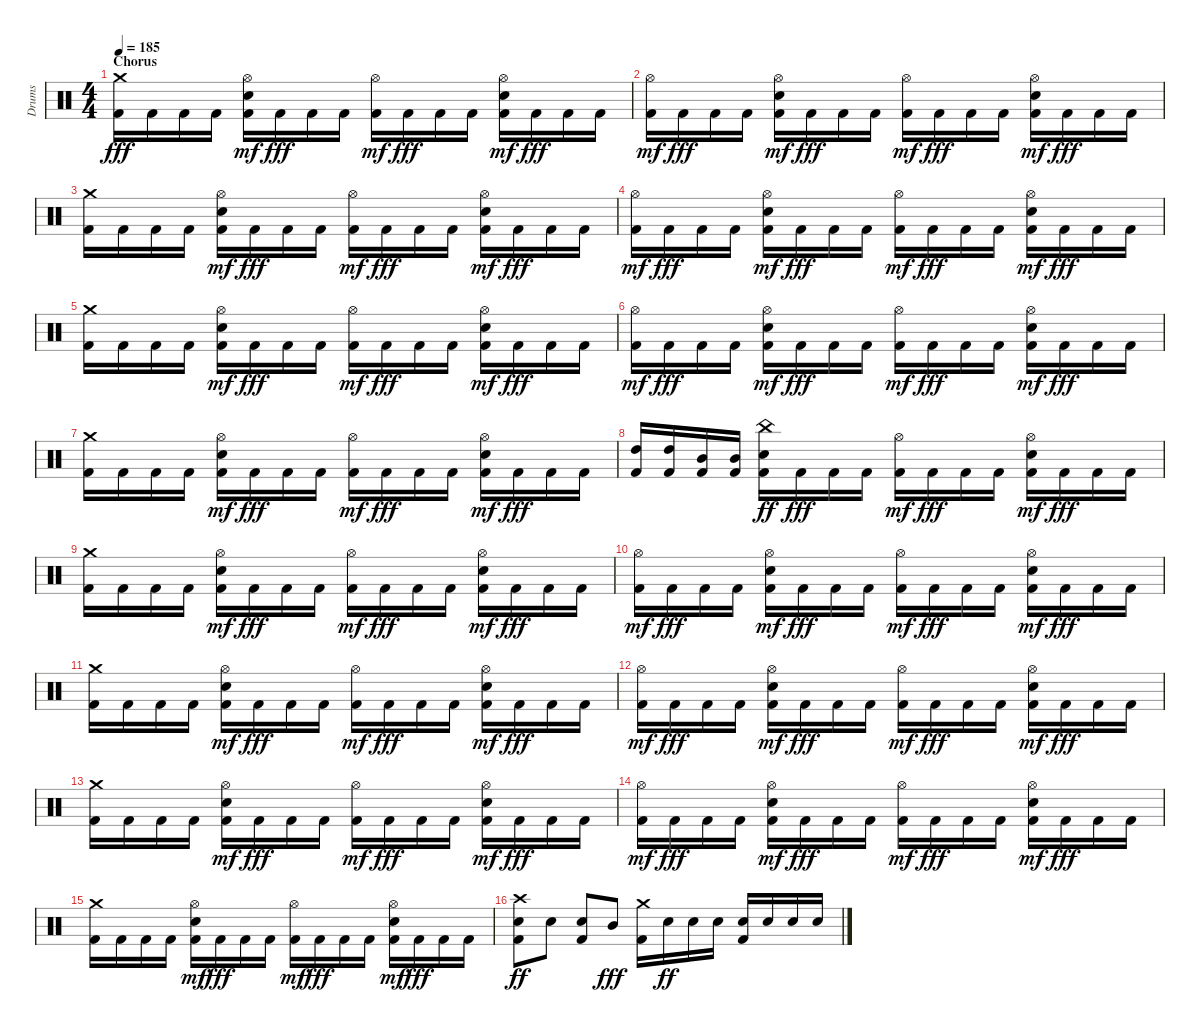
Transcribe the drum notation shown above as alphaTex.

\track ("Drums" "Drums") {instrument percussion}
\staff {score}
\articulation defaults
\ts (4 4)
\section ("" "Chorus")
\tempo 185
\clef neutral
\ks c
("Kick (hit) 2" "Crash medium (hit)").16{dy fff} "Kick (hit) 2".16 "Kick (hit) 2".16 "Kick (hit) 2".16 ("Kick (hit) 2" "Snare (hit) 2" "Hi-Hat (open)").16{dy mf} "Kick (hit) 2".16{dy fff} "Kick (hit) 2".16 "Kick (hit) 2".16 ("Kick (hit) 2" "Hi-Hat (open)").16{dy mf} "Kick (hit) 2".16{dy fff} "Kick (hit) 2".16 "Kick (hit) 2".16 ("Kick (hit) 2" "Snare (hit) 2" "Hi-Hat (open)").16{dy mf} "Kick (hit) 2".16{dy fff} "Kick (hit) 2".16 "Kick (hit) 2".16 |
("Kick (hit) 2" "Hi-Hat (open)").16{dy mf} "Kick (hit) 2".16{dy fff} "Kick (hit) 2".16 "Kick (hit) 2".16 ("Kick (hit) 2" "Snare (hit) 2" "Hi-Hat (open)").16{dy mf} "Kick (hit) 2".16{dy fff} "Kick (hit) 2".16 "Kick (hit) 2".16 ("Kick (hit) 2" "Hi-Hat (open)").16{dy mf} "Kick (hit) 2".16{dy fff} "Kick (hit) 2".16 "Kick (hit) 2".16 ("Kick (hit) 2" "Snare (hit) 2" "Hi-Hat (open)").16{dy mf} "Kick (hit) 2".16{dy fff} "Kick (hit) 2".16 "Kick (hit) 2".16 |
("Kick (hit) 2" "Crash medium (hit)").16 "Kick (hit) 2".16 "Kick (hit) 2".16 "Kick (hit) 2".16 ("Kick (hit) 2" "Snare (hit) 2" "Hi-Hat (open)").16{dy mf} "Kick (hit) 2".16{dy fff} "Kick (hit) 2".16 "Kick (hit) 2".16 ("Kick (hit) 2" "Hi-Hat (open)").16{dy mf} "Kick (hit) 2".16{dy fff} "Kick (hit) 2".16 "Kick (hit) 2".16 ("Kick (hit) 2" "Snare (hit) 2" "Hi-Hat (open)").16{dy mf} "Kick (hit) 2".16{dy fff} "Kick (hit) 2".16 "Kick (hit) 2".16 |
("Kick (hit) 2" "Hi-Hat (open)").16{dy mf} "Kick (hit) 2".16{dy fff} "Kick (hit) 2".16 "Kick (hit) 2".16 ("Kick (hit) 2" "Snare (hit) 2" "Hi-Hat (open)").16{dy mf} "Kick (hit) 2".16{dy fff} "Kick (hit) 2".16 "Kick (hit) 2".16 ("Kick (hit) 2" "Hi-Hat (open)").16{dy mf} "Kick (hit) 2".16{dy fff} "Kick (hit) 2".16 "Kick (hit) 2".16 ("Kick (hit) 2" "Snare (hit) 2" "Hi-Hat (open)").16{dy mf} "Kick (hit) 2".16{dy fff} "Kick (hit) 2".16 "Kick (hit) 2".16 |
("Kick (hit) 2" "Crash medium (hit)").16 "Kick (hit) 2".16 "Kick (hit) 2".16 "Kick (hit) 2".16 ("Kick (hit) 2" "Snare (hit) 2" "Hi-Hat (open)").16{dy mf} "Kick (hit) 2".16{dy fff} "Kick (hit) 2".16 "Kick (hit) 2".16 ("Kick (hit) 2" "Hi-Hat (open)").16{dy mf} "Kick (hit) 2".16{dy fff} "Kick (hit) 2".16 "Kick (hit) 2".16 ("Kick (hit) 2" "Snare (hit) 2" "Hi-Hat (open)").16{dy mf} "Kick (hit) 2".16{dy fff} "Kick (hit) 2".16 "Kick (hit) 2".16 |
("Kick (hit) 2" "Hi-Hat (open)").16{dy mf} "Kick (hit) 2".16{dy fff} "Kick (hit) 2".16 "Kick (hit) 2".16 ("Kick (hit) 2" "Snare (hit) 2" "Hi-Hat (open)").16{dy mf} "Kick (hit) 2".16{dy fff} "Kick (hit) 2".16 "Kick (hit) 2".16 ("Kick (hit) 2" "Hi-Hat (open)").16{dy mf} "Kick (hit) 2".16{dy fff} "Kick (hit) 2".16 "Kick (hit) 2".16 ("Kick (hit) 2" "Snare (hit) 2" "Hi-Hat (open)").16{dy mf} "Kick (hit) 2".16{dy fff} "Kick (hit) 2".16 "Kick (hit) 2".16 |
("Kick (hit) 2" "Crash medium (hit)").16 "Kick (hit) 2".16 "Kick (hit) 2".16 "Kick (hit) 2".16 ("Kick (hit) 2" "Snare (hit) 2" "Hi-Hat (open)").16{dy mf} "Kick (hit) 2".16{dy fff} "Kick (hit) 2".16 "Kick (hit) 2".16 ("Kick (hit) 2" "Hi-Hat (open)").16{dy mf} "Kick (hit) 2".16{dy fff} "Kick (hit) 2".16 "Kick (hit) 2".16 ("Kick (hit) 2" "Snare (hit) 2" "Hi-Hat (open)").16{dy mf} "Kick (hit) 2".16{dy fff} "Kick (hit) 2".16 "Kick (hit) 2".16 |
("Kick (hit) 2" "High Tom (hit)").16 ("Kick (hit) 2" "High Tom (hit)").16 ("Kick (hit) 2" "Mid Tom (hit)").16 ("Kick (hit) 2" "Mid Tom (hit)").16 ("Kick (hit) 2" "Snare (hit) 2" "China (hit)").16{dy ff} "Kick (hit) 2".16{dy fff} "Kick (hit) 2".16 "Kick (hit) 2".16 ("Kick (hit) 2" "Hi-Hat (open)").16{dy mf} "Kick (hit) 2".16{dy fff} "Kick (hit) 2".16 "Kick (hit) 2".16 ("Kick (hit) 2" "Snare (hit) 2" "Hi-Hat (open)").16{dy mf} "Kick (hit) 2".16{dy fff} "Kick (hit) 2".16 "Kick (hit) 2".16 |
("Kick (hit) 2" "Crash medium (hit)").16 "Kick (hit) 2".16 "Kick (hit) 2".16 "Kick (hit) 2".16 ("Kick (hit) 2" "Snare (hit) 2" "Hi-Hat (open)").16{dy mf} "Kick (hit) 2".16{dy fff} "Kick (hit) 2".16 "Kick (hit) 2".16 ("Kick (hit) 2" "Hi-Hat (open)").16{dy mf} "Kick (hit) 2".16{dy fff} "Kick (hit) 2".16 "Kick (hit) 2".16 ("Kick (hit) 2" "Snare (hit) 2" "Hi-Hat (open)").16{dy mf} "Kick (hit) 2".16{dy fff} "Kick (hit) 2".16 "Kick (hit) 2".16 |
("Kick (hit) 2" "Hi-Hat (open)").16{dy mf} "Kick (hit) 2".16{dy fff} "Kick (hit) 2".16 "Kick (hit) 2".16 ("Kick (hit) 2" "Snare (hit) 2" "Hi-Hat (open)").16{dy mf} "Kick (hit) 2".16{dy fff} "Kick (hit) 2".16 "Kick (hit) 2".16 ("Kick (hit) 2" "Hi-Hat (open)").16{dy mf} "Kick (hit) 2".16{dy fff} "Kick (hit) 2".16 "Kick (hit) 2".16 ("Kick (hit) 2" "Snare (hit) 2" "Hi-Hat (open)").16{dy mf} "Kick (hit) 2".16{dy fff} "Kick (hit) 2".16 "Kick (hit) 2".16 |
("Kick (hit) 2" "Crash medium (hit)").16 "Kick (hit) 2".16 "Kick (hit) 2".16 "Kick (hit) 2".16 ("Kick (hit) 2" "Snare (hit) 2" "Hi-Hat (open)").16{dy mf} "Kick (hit) 2".16{dy fff} "Kick (hit) 2".16 "Kick (hit) 2".16 ("Kick (hit) 2" "Hi-Hat (open)").16{dy mf} "Kick (hit) 2".16{dy fff} "Kick (hit) 2".16 "Kick (hit) 2".16 ("Kick (hit) 2" "Snare (hit) 2" "Hi-Hat (open)").16{dy mf} "Kick (hit) 2".16{dy fff} "Kick (hit) 2".16 "Kick (hit) 2".16 |
("Kick (hit) 2" "Hi-Hat (open)").16{dy mf} "Kick (hit) 2".16{dy fff} "Kick (hit) 2".16 "Kick (hit) 2".16 ("Kick (hit) 2" "Snare (hit) 2" "Hi-Hat (open)").16{dy mf} "Kick (hit) 2".16{dy fff} "Kick (hit) 2".16 "Kick (hit) 2".16 ("Kick (hit) 2" "Hi-Hat (open)").16{dy mf} "Kick (hit) 2".16{dy fff} "Kick (hit) 2".16 "Kick (hit) 2".16 ("Kick (hit) 2" "Snare (hit) 2" "Hi-Hat (open)").16{dy mf} "Kick (hit) 2".16{dy fff} "Kick (hit) 2".16 "Kick (hit) 2".16 |
("Kick (hit) 2" "Crash medium (hit)").16 "Kick (hit) 2".16 "Kick (hit) 2".16 "Kick (hit) 2".16 ("Kick (hit) 2" "Snare (hit) 2" "Hi-Hat (open)").16{dy mf} "Kick (hit) 2".16{dy fff} "Kick (hit) 2".16 "Kick (hit) 2".16 ("Kick (hit) 2" "Hi-Hat (open)").16{dy mf} "Kick (hit) 2".16{dy fff} "Kick (hit) 2".16 "Kick (hit) 2".16 ("Kick (hit) 2" "Snare (hit) 2" "Hi-Hat (open)").16{dy mf} "Kick (hit) 2".16{dy fff} "Kick (hit) 2".16 "Kick (hit) 2".16 |
("Kick (hit) 2" "Hi-Hat (open)").16{dy mf} "Kick (hit) 2".16{dy fff} "Kick (hit) 2".16 "Kick (hit) 2".16 ("Kick (hit) 2" "Snare (hit) 2" "Hi-Hat (open)").16{dy mf} "Kick (hit) 2".16{dy fff} "Kick (hit) 2".16 "Kick (hit) 2".16 ("Kick (hit) 2" "Hi-Hat (open)").16{dy mf} "Kick (hit) 2".16{dy fff} "Kick (hit) 2".16 "Kick (hit) 2".16 ("Kick (hit) 2" "Snare (hit) 2" "Hi-Hat (open)").16{dy mf} "Kick (hit) 2".16{dy fff} "Kick (hit) 2".16 "Kick (hit) 2".16 |
("Kick (hit) 2" "Crash medium (hit)").16 "Kick (hit) 2".16 "Kick (hit) 2".16 "Kick (hit) 2".16 ("Kick (hit) 2" "Snare (hit) 2" "Hi-Hat (open)").16{dy mf} "Kick (hit) 2".16{dy fff} "Kick (hit) 2".16 "Kick (hit) 2".16 ("Kick (hit) 2" "Hi-Hat (open)").16{dy mf} "Kick (hit) 2".16{dy fff} "Kick (hit) 2".16 "Kick (hit) 2".16 ("Kick (hit) 2" "Snare (hit) 2" "Hi-Hat (open)").16{dy mf} "Kick (hit) 2".16{dy fff} "Kick (hit) 2".16 "Kick (hit) 2".16 |
("Kick (hit) 2" "Snare (hit) 2" "Crash high (hit)").8{dy ff} "Snare (hit) 2".8 ("Kick (hit) 2" "Snare (hit) 2").8 "Mid Tom (hit)".8{dy fff} ("Kick (hit) 2" "Crash medium (hit)").16 "Snare (hit) 2".16{dy ff} "Snare (hit) 2".16 "Snare (hit) 2".16 ("Kick (hit) 2" "Snare (hit) 2").16 "Snare (hit) 2".16 "Snare (hit) 2".16 "Snare (hit) 2".16
